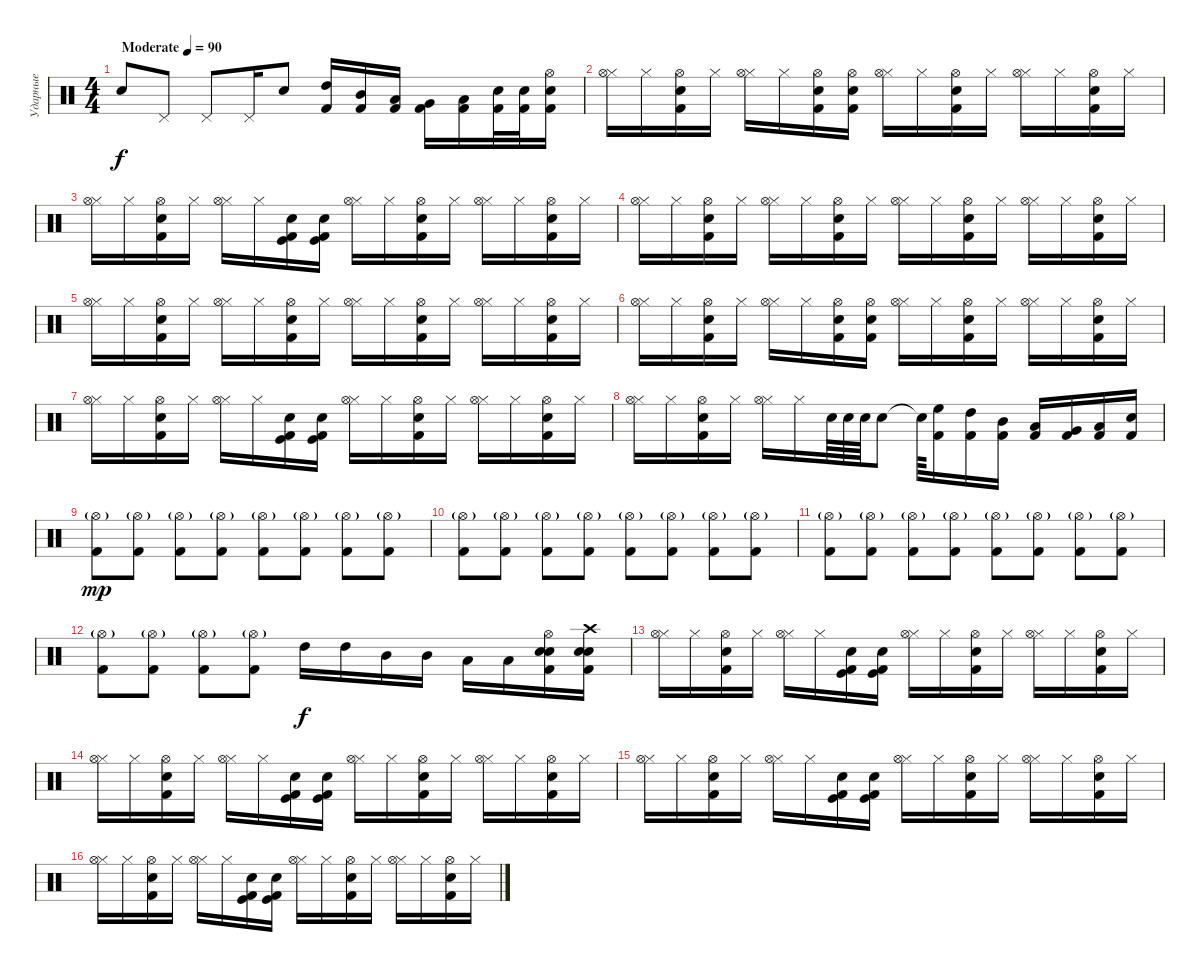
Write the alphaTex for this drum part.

\track ("Ударные" "Ударные") {instrument percussion}
\staff {score}
\articulation defaults
\ts (4 4)
\tempo (90 "Moderate")
\clef neutral
\ks c "Snare (hit) 2".8{dy f} "Pedal Hi-Hat (hit)".8 "Pedal Hi-Hat (hit)".8 "Pedal Hi-Hat (hit)".16 "Snare (hit) 2".8
("High Tom (hit)" "Kick (hit) 2").16 ("Mid Tom (hit)" "Kick (hit) 2").16 ("Low Tom (hit)" "Kick (hit) 2").16 ("Very Low Tom (hit)" "Kick (hit) 2").16 ("Low Floor Tom (hit)" "Kick (hit) 2").16 ("Electric Snare (hit)" "Kick (hit) 2").32 ("Electric Snare (hit)" "Kick (hit) 2").32 ("Electric Snare (hit)" "Kick (hit) 2" "Hi-Hat (open)").16 |
("Hi-Hat (closed)" "Hi-Hat (open)").16 "Hi-Hat (closed)".16 ("Snare (hit) 2" "Hi-Hat (open)" "Kick (hit) 2").16 "Hi-Hat (closed)".16 ("Hi-Hat (closed)" "Hi-Hat (open)").16 "Hi-Hat (closed)".16 ("Snare (hit) 2" "Hi-Hat (open)" "Kick (hit) 2").16 ("Snare (hit) 2" "Hi-Hat (open)" "Kick (hit) 2").16 ("Hi-Hat (closed)" "Hi-Hat (open)").16 "Hi-Hat (closed)".16 ("Snare (hit) 2" "Kick (hit) 2" "Hi-Hat (open)").16 "Hi-Hat (closed)".16 ("Hi-Hat (closed)" "Hi-Hat (open)").16 "Hi-Hat (closed)".16 ("Snare (hit) 2" "Kick (hit) 2" "Hi-Hat (open)").16 "Hi-Hat (closed)".16 |
("Hi-Hat (closed)" "Hi-Hat (open)").16 "Hi-Hat (closed)".16 ("Snare (hit) 2" "Hi-Hat (open)" "Kick (hit) 2").16 "Hi-Hat (closed)".16 ("Hi-Hat (closed)" "Hi-Hat (open)").16 "Hi-Hat (closed)".16 ("Snare (hit) 2" "Kick (hit)" "Kick (hit) 2").16 ("Snare (hit) 2" "Kick (hit)" "Kick (hit) 2").16 ("Hi-Hat (closed)" "Hi-Hat (open)").16 "Hi-Hat (closed)".16 ("Snare (hit) 2" "Kick (hit) 2" "Hi-Hat (open)").16 "Hi-Hat (closed)".16 ("Hi-Hat (closed)" "Hi-Hat (open)").16 "Hi-Hat (closed)".16 ("Snare (hit) 2" "Kick (hit) 2" "Hi-Hat (open)").16 "Hi-Hat (closed)".16 |
("Hi-Hat (closed)" "Hi-Hat (open)").16 "Hi-Hat (closed)".16 ("Snare (hit) 2" "Hi-Hat (open)" "Kick (hit) 2").16 "Hi-Hat (closed)".16 ("Hi-Hat (closed)" "Hi-Hat (open)").16 "Hi-Hat (closed)".16 ("Snare (hit) 2" "Hi-Hat (open)" "Kick (hit) 2").16 "Hi-Hat (closed)".16 ("Hi-Hat (closed)" "Hi-Hat (open)").16 "Hi-Hat (closed)".16 ("Snare (hit) 2" "Hi-Hat (open)" "Kick (hit) 2").16 "Hi-Hat (closed)".16 ("Hi-Hat (closed)" "Hi-Hat (open)").16 "Hi-Hat (closed)".16 ("Snare (hit) 2" "Hi-Hat (open)" "Kick (hit) 2").16 "Hi-Hat (closed)".16 |
("Hi-Hat (closed)" "Hi-Hat (open)").16 "Hi-Hat (closed)".16 ("Snare (hit) 2" "Hi-Hat (open)" "Kick (hit) 2").16 "Hi-Hat (closed)".16 ("Hi-Hat (closed)" "Hi-Hat (open)").16 "Hi-Hat (closed)".16 ("Snare (hit) 2" "Hi-Hat (open)" "Kick (hit) 2").16 "Hi-Hat (closed)".16 ("Hi-Hat (closed)" "Hi-Hat (open)").16 "Hi-Hat (closed)".16 ("Snare (hit) 2" "Hi-Hat (open)" "Kick (hit) 2").16 "Hi-Hat (closed)".16 ("Hi-Hat (closed)" "Hi-Hat (open)").16 "Hi-Hat (closed)".16 ("Snare (hit) 2" "Hi-Hat (open)" "Kick (hit) 2").16 "Hi-Hat (closed)".16 |
("Hi-Hat (closed)" "Hi-Hat (open)").16 "Hi-Hat (closed)".16 ("Snare (hit) 2" "Hi-Hat (open)" "Kick (hit) 2").16 "Hi-Hat (closed)".16 ("Hi-Hat (closed)" "Hi-Hat (open)").16 "Hi-Hat (closed)".16 ("Snare (hit) 2" "Hi-Hat (open)" "Kick (hit) 2").16 ("Snare (hit) 2" "Hi-Hat (open)" "Kick (hit) 2").16 ("Hi-Hat (closed)" "Hi-Hat (open)").16 "Hi-Hat (closed)".16 ("Snare (hit) 2" "Kick (hit) 2" "Hi-Hat (open)").16 "Hi-Hat (closed)".16 ("Hi-Hat (closed)" "Hi-Hat (open)").16 "Hi-Hat (closed)".16 ("Snare (hit) 2" "Kick (hit) 2" "Hi-Hat (open)").16 "Hi-Hat (closed)".16 |
("Hi-Hat (closed)" "Hi-Hat (open)").16 "Hi-Hat (closed)".16 ("Snare (hit) 2" "Hi-Hat (open)" "Kick (hit) 2").16 "Hi-Hat (closed)".16 ("Hi-Hat (closed)" "Hi-Hat (open)").16 "Hi-Hat (closed)".16 ("Snare (hit) 2" "Kick (hit)" "Kick (hit) 2").16 ("Snare (hit) 2" "Kick (hit)" "Kick (hit) 2").16 ("Hi-Hat (closed)" "Hi-Hat (open)").16 "Hi-Hat (closed)".16 ("Snare (hit) 2" "Kick (hit) 2" "Hi-Hat (open)").16 "Hi-Hat (closed)".16 ("Hi-Hat (closed)" "Hi-Hat (open)").16 "Hi-Hat (closed)".16 ("Snare (hit) 2" "Kick (hit) 2" "Hi-Hat (open)").16 "Hi-Hat (closed)".16 |
("Hi-Hat (closed)" "Hi-Hat (open)").16 "Hi-Hat (closed)".16 ("Snare (hit) 2" "Hi-Hat (open)" "Kick (hit) 2").16 "Hi-Hat (closed)".16 ("Hi-Hat (closed)" "Hi-Hat (open)").16 "Hi-Hat (closed)".16 "Snare (hit) 2".64 "Snare (hit) 2".64 "Snare (hit) 2".64 "Snare (hit) 2".8 "Snare (hit) 2"{t}.64 ("High Floor Tom (hit)" "Kick (hit) 2").16 ("High Tom (hit)" "Kick (hit) 2").16 ("Mid Tom (hit)" "Kick (hit) 2").16 ("Low Tom (hit)" "Kick (hit) 2").16 ("Very Low Tom (hit)" "Kick (hit) 2").16 ("Kick (hit) 2" "Low Floor Tom (hit)").16 ("Kick (hit) 2" "Electric Snare (hit)").16 |
("Kick (hit) 2" "Hi-Hat (open)"{g}).8{dy mp} ("Kick (hit) 2" "Hi-Hat (open)"{g}).8 ("Kick (hit) 2" "Hi-Hat (open)"{g}).8 ("Kick (hit) 2" "Hi-Hat (open)"{g}).8 ("Kick (hit) 2" "Hi-Hat (open)"{g}).8 ("Kick (hit) 2" "Hi-Hat (open)"{g}).8 ("Kick (hit) 2" "Hi-Hat (open)"{g}).8 ("Kick (hit) 2" "Hi-Hat (open)"{g}).8 |
("Kick (hit) 2" "Hi-Hat (open)"{g}).8 ("Kick (hit) 2" "Hi-Hat (open)"{g}).8 ("Kick (hit) 2" "Hi-Hat (open)"{g}).8 ("Kick (hit) 2" "Hi-Hat (open)"{g}).8 ("Kick (hit) 2" "Hi-Hat (open)"{g}).8 ("Kick (hit) 2" "Hi-Hat (open)"{g}).8 ("Kick (hit) 2" "Hi-Hat (open)"{g}).8 ("Kick (hit) 2" "Hi-Hat (open)"{g}).8 |
("Kick (hit) 2" "Hi-Hat (open)"{g}).8 ("Kick (hit) 2" "Hi-Hat (open)"{g}).8 ("Kick (hit) 2" "Hi-Hat (open)"{g}).8 ("Kick (hit) 2" "Hi-Hat (open)"{g}).8 ("Kick (hit) 2" "Hi-Hat (open)"{g}).8 ("Kick (hit) 2" "Hi-Hat (open)"{g}).8 ("Kick (hit) 2" "Hi-Hat (open)"{g}).8 ("Kick (hit) 2" "Hi-Hat (open)"{g}).8 |
("Kick (hit) 2" "Hi-Hat (open)"{g}).8 ("Kick (hit) 2" "Hi-Hat (open)"{g}).8 ("Kick (hit) 2" "Hi-Hat (open)"{g}).8 ("Kick (hit) 2" "Hi-Hat (open)"{g}).8 "High Tom (hit)".16{dy f} "High Tom (hit)".16 "Mid Tom (hit)".16 "Mid Tom (hit)".16 "Low Tom (hit)".16 "Low Tom (hit)".16 ("Hi-Hat (open)" "Electric Snare (hit)" "Electric Snare (hit)" "Kick (hit) 2").16 ("Crash high (hit)" "Electric Snare (hit)" "Electric Snare (hit)" "Kick (hit) 2").16 |
("Hi-Hat (closed)" "Hi-Hat (open)").16 "Hi-Hat (closed)".16 ("Snare (hit) 2" "Hi-Hat (open)" "Kick (hit) 2").16 "Hi-Hat (closed)".16 ("Hi-Hat (closed)" "Hi-Hat (open)").16 "Hi-Hat (closed)".16 ("Snare (hit) 2" "Kick (hit)" "Kick (hit) 2").16 ("Snare (hit) 2" "Kick (hit)" "Kick (hit) 2").16 ("Hi-Hat (closed)" "Hi-Hat (open)").16 "Hi-Hat (closed)".16 ("Snare (hit) 2" "Kick (hit) 2" "Hi-Hat (open)").16 "Hi-Hat (closed)".16 ("Hi-Hat (closed)" "Hi-Hat (open)").16 "Hi-Hat (closed)".16 ("Snare (hit) 2" "Kick (hit) 2" "Hi-Hat (open)").16 "Hi-Hat (closed)".16 |
("Hi-Hat (closed)" "Hi-Hat (open)").16 "Hi-Hat (closed)".16 ("Snare (hit) 2" "Hi-Hat (open)" "Kick (hit) 2").16 "Hi-Hat (closed)".16 ("Hi-Hat (closed)" "Hi-Hat (open)").16 "Hi-Hat (closed)".16 ("Snare (hit) 2" "Kick (hit)" "Kick (hit) 2").16 ("Snare (hit) 2" "Kick (hit)" "Kick (hit) 2").16 ("Hi-Hat (closed)" "Hi-Hat (open)").16 "Hi-Hat (closed)".16 ("Snare (hit) 2" "Kick (hit) 2" "Hi-Hat (open)").16 "Hi-Hat (closed)".16 ("Hi-Hat (closed)" "Hi-Hat (open)").16 "Hi-Hat (closed)".16 ("Snare (hit) 2" "Kick (hit) 2" "Hi-Hat (open)").16 "Hi-Hat (closed)".16 |
("Hi-Hat (closed)" "Hi-Hat (open)").16 "Hi-Hat (closed)".16 ("Snare (hit) 2" "Hi-Hat (open)" "Kick (hit) 2").16 "Hi-Hat (closed)".16 ("Hi-Hat (closed)" "Hi-Hat (open)").16 "Hi-Hat (closed)".16 ("Snare (hit) 2" "Kick (hit)" "Kick (hit) 2").16 ("Snare (hit) 2" "Kick (hit)" "Kick (hit) 2").16 ("Hi-Hat (closed)" "Hi-Hat (open)").16 "Hi-Hat (closed)".16 ("Snare (hit) 2" "Kick (hit) 2" "Hi-Hat (open)").16 "Hi-Hat (closed)".16 ("Hi-Hat (closed)" "Hi-Hat (open)").16 "Hi-Hat (closed)".16 ("Snare (hit) 2" "Kick (hit) 2" "Hi-Hat (open)").16 "Hi-Hat (closed)".16 |
("Hi-Hat (closed)" "Hi-Hat (open)").16 "Hi-Hat (closed)".16 ("Snare (hit) 2" "Hi-Hat (open)" "Kick (hit) 2").16 "Hi-Hat (closed)".16 ("Hi-Hat (closed)" "Hi-Hat (open)").16 "Hi-Hat (closed)".16 ("Snare (hit) 2" "Kick (hit)" "Kick (hit) 2").16 ("Snare (hit) 2" "Kick (hit)" "Kick (hit) 2").16 ("Hi-Hat (closed)" "Hi-Hat (open)").16 "Hi-Hat (closed)".16 ("Snare (hit) 2" "Kick (hit) 2" "Hi-Hat (open)").16 "Hi-Hat (closed)".16 ("Hi-Hat (closed)" "Hi-Hat (open)").16 "Hi-Hat (closed)".16 ("Snare (hit) 2" "Kick (hit) 2" "Hi-Hat (open)").16 "Hi-Hat (closed)".16
